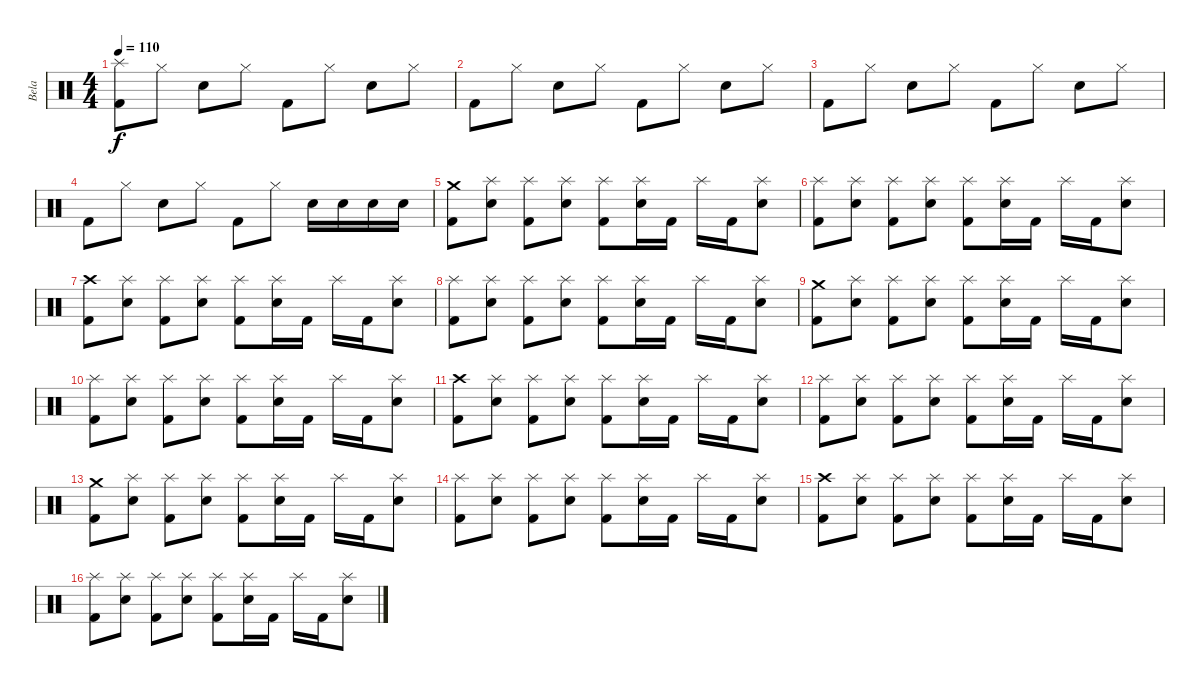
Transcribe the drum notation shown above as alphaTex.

\track ("Bela " "Bela ") {instrument percussion}
\staff {score}
\articulation defaults
\ts (4 4)
\tempo 110
\clef neutral
\ks c
("Splash (hit)" "Kick (hit) 2").8{dy f} "Hi-Hat (closed)".8 "Electric Snare (hit)".8 "Hi-Hat (closed)".8 "Kick (hit) 2".8 "Hi-Hat (closed)".8 "Electric Snare (hit)".8 "Hi-Hat (closed)".8 |
"Kick (hit) 2".8 "Hi-Hat (closed)".8 "Electric Snare (hit)".8 "Hi-Hat (closed)".8 "Kick (hit) 2".8 "Hi-Hat (closed)".8 "Electric Snare (hit)".8 "Hi-Hat (closed)".8 |
"Kick (hit) 2".8 "Hi-Hat (closed)".8 "Electric Snare (hit)".8 "Hi-Hat (closed)".8 "Kick (hit) 2".8 "Hi-Hat (closed)".8 "Electric Snare (hit)".8 "Hi-Hat (closed)".8 |
"Kick (hit) 2".8 "Hi-Hat (closed)".8 "Electric Snare (hit)".8 "Hi-Hat (closed)".8 "Kick (hit) 2".8 "Hi-Hat (closed)".8 "Electric Snare (hit)".16 "Electric Snare (hit)".16 "Electric Snare (hit)".16 "Electric Snare (hit)".16 |
("Crash medium (hit)" "Kick (hit) 2").8 ("Splash (hit)" "Electric Snare (hit)").8 ("Splash (hit)" "Kick (hit) 2").8 ("Splash (hit)" "Electric Snare (hit)").8 ("Splash (hit)" "Kick (hit) 2").8 ("Splash (hit)" "Electric Snare (hit)").16 "Kick (hit) 2".16 "Splash (hit)".16 "Kick (hit) 2".16 ("Splash (hit)" "Electric Snare (hit)").8 |
("Splash (hit)" "Kick (hit) 2").8 ("Splash (hit)" "Electric Snare (hit)").8 ("Splash (hit)" "Kick (hit) 2").8 ("Splash (hit)" "Electric Snare (hit)").8 ("Splash (hit)" "Kick (hit) 2").8 ("Splash (hit)" "Electric Snare (hit)").16 "Kick (hit) 2".16 "Splash (hit)".16 "Kick (hit) 2".16 ("Splash (hit)" "Electric Snare (hit)").8 |
("Crash high (hit)" "Kick (hit) 2").8 ("Splash (hit)" "Electric Snare (hit)").8 ("Splash (hit)" "Kick (hit) 2").8 ("Splash (hit)" "Electric Snare (hit)").8 ("Splash (hit)" "Kick (hit) 2").8 ("Splash (hit)" "Electric Snare (hit)").16 "Kick (hit) 2".16 "Splash (hit)".16 "Kick (hit) 2".16 ("Splash (hit)" "Electric Snare (hit)").8 |
("Splash (hit)" "Kick (hit) 2").8 ("Splash (hit)" "Electric Snare (hit)").8 ("Splash (hit)" "Kick (hit) 2").8 ("Splash (hit)" "Electric Snare (hit)").8 ("Splash (hit)" "Kick (hit) 2").8 ("Splash (hit)" "Electric Snare (hit)").16 "Kick (hit) 2".16 "Splash (hit)".16 "Kick (hit) 2".16 ("Splash (hit)" "Electric Snare (hit)").8 |
("Crash medium (hit)" "Kick (hit) 2").8 ("Splash (hit)" "Electric Snare (hit)").8 ("Splash (hit)" "Kick (hit) 2").8 ("Splash (hit)" "Electric Snare (hit)").8 ("Splash (hit)" "Kick (hit) 2").8 ("Splash (hit)" "Electric Snare (hit)").16 "Kick (hit) 2".16 "Splash (hit)".16 "Kick (hit) 2".16 ("Splash (hit)" "Electric Snare (hit)").8 |
("Splash (hit)" "Kick (hit) 2").8 ("Splash (hit)" "Electric Snare (hit)").8 ("Splash (hit)" "Kick (hit) 2").8 ("Splash (hit)" "Electric Snare (hit)").8 ("Splash (hit)" "Kick (hit) 2").8 ("Splash (hit)" "Electric Snare (hit)").16 "Kick (hit) 2".16 "Splash (hit)".16 "Kick (hit) 2".16 ("Splash (hit)" "Electric Snare (hit)").8 |
("Crash high (hit)" "Kick (hit) 2").8 ("Splash (hit)" "Electric Snare (hit)").8 ("Splash (hit)" "Kick (hit) 2").8 ("Splash (hit)" "Electric Snare (hit)").8 ("Splash (hit)" "Kick (hit) 2").8 ("Splash (hit)" "Electric Snare (hit)").16 "Kick (hit) 2".16 "Splash (hit)".16 "Kick (hit) 2".16 ("Splash (hit)" "Electric Snare (hit)").8 |
("Splash (hit)" "Kick (hit) 2").8 ("Splash (hit)" "Electric Snare (hit)").8 ("Splash (hit)" "Kick (hit) 2").8 ("Splash (hit)" "Electric Snare (hit)").8 ("Splash (hit)" "Kick (hit) 2").8 ("Splash (hit)" "Electric Snare (hit)").16 "Kick (hit) 2".16 "Splash (hit)".16 "Kick (hit) 2".16 ("Splash (hit)" "Electric Snare (hit)").8 |
("Crash medium (hit)" "Kick (hit) 2").8 ("Splash (hit)" "Electric Snare (hit)").8 ("Splash (hit)" "Kick (hit) 2").8 ("Splash (hit)" "Electric Snare (hit)").8 ("Splash (hit)" "Kick (hit) 2").8 ("Splash (hit)" "Electric Snare (hit)").16 "Kick (hit) 2".16 "Splash (hit)".16 "Kick (hit) 2".16 ("Splash (hit)" "Electric Snare (hit)").8 |
("Splash (hit)" "Kick (hit) 2").8 ("Splash (hit)" "Electric Snare (hit)").8 ("Splash (hit)" "Kick (hit) 2").8 ("Splash (hit)" "Electric Snare (hit)").8 ("Splash (hit)" "Kick (hit) 2").8 ("Splash (hit)" "Electric Snare (hit)").16 "Kick (hit) 2".16 "Splash (hit)".16 "Kick (hit) 2".16 ("Splash (hit)" "Electric Snare (hit)").8 |
("Crash high (hit)" "Kick (hit) 2").8 ("Splash (hit)" "Electric Snare (hit)").8 ("Splash (hit)" "Kick (hit) 2").8 ("Splash (hit)" "Electric Snare (hit)").8 ("Splash (hit)" "Kick (hit) 2").8 ("Splash (hit)" "Electric Snare (hit)").16 "Kick (hit) 2".16 "Splash (hit)".16 "Kick (hit) 2".16 ("Splash (hit)" "Electric Snare (hit)").8 |
("Splash (hit)" "Kick (hit) 2").8 ("Splash (hit)" "Electric Snare (hit)").8 ("Splash (hit)" "Kick (hit) 2").8 ("Splash (hit)" "Electric Snare (hit)").8 ("Splash (hit)" "Kick (hit) 2").8 ("Splash (hit)" "Electric Snare (hit)").16 "Kick (hit) 2".16 "Splash (hit)".16 "Kick (hit) 2".16 ("Splash (hit)" "Electric Snare (hit)").8
